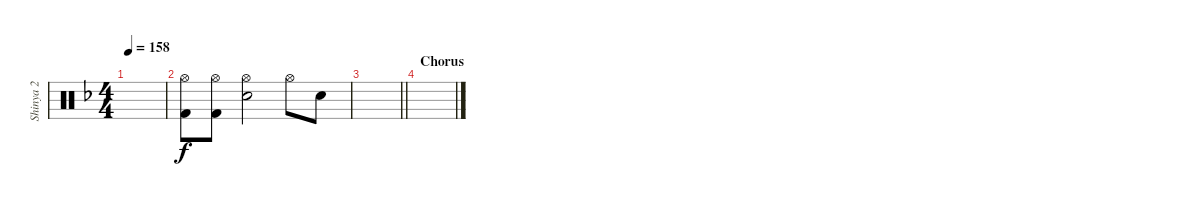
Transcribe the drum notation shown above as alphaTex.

\track ("Shinya 2" "Shinya 2") {instrument percussion}
\staff {score}
\articulation defaults
\ts (4 4)
\tempo 158
\clef neutral
\ks f
|
("Hi-Hat (open)" "Kick (hit) 2").8 ("Hi-Hat (open)" "Kick (hit) 2").8 ("Hi-Hat (open)" "Snare (hit) 2").2 "Hi-Hat (open)".8 "Snare (hit) 2".8 |
\barLineRight lightlight
|
\section ("" "Chorus")
